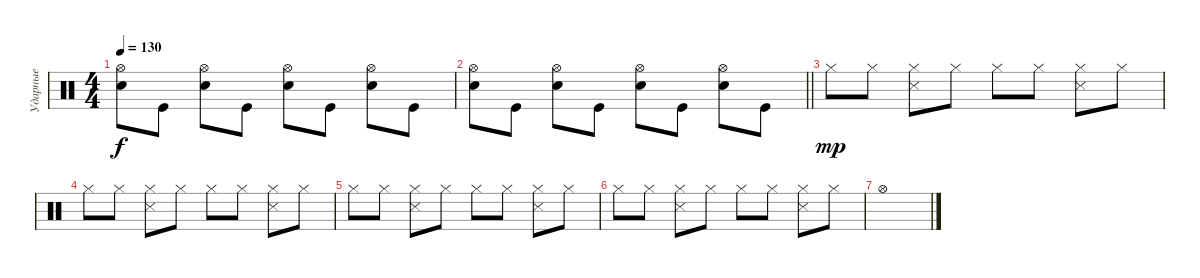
\track ("Ударные" "Ударные") {instrument percussion}
\staff {score}
\articulation defaults
\ts (4 4)
\tempo 130
\clef neutral
\ks c
("Hi-Hat (open)" "Electric Snare (hit)").8{dy f} "Kick (hit)".8 ("Hi-Hat (open)" "Electric Snare (hit)").8 "Kick (hit)".8 ("Hi-Hat (open)" "Electric Snare (hit)").8 "Kick (hit)".8 ("Hi-Hat (open)" "Electric Snare (hit)").8 "Kick (hit)".8 |
\barLineRight lightlight
("Hi-Hat (open)" "Electric Snare (hit)").8 "Kick (hit)".8 ("Hi-Hat (open)" "Electric Snare (hit)").8 "Kick (hit)".8 ("Hi-Hat (open)" "Electric Snare (hit)").8 "Kick (hit)".8 ("Hi-Hat (open)" "Electric Snare (hit)").8 "Kick (hit)".8 |
\section ("" " ")
"Hi-Hat (closed)".8{dy mp} "Hi-Hat (closed)".8 ("Hi-Hat (closed)" "Snare (side stick) 3").8 "Hi-Hat (closed)".8 "Hi-Hat (closed)".8 "Hi-Hat (closed)".8 ("Hi-Hat (closed)" "Snare (side stick) 3").8 "Hi-Hat (closed)".8 |
"Hi-Hat (closed)".8 "Hi-Hat (closed)".8 ("Hi-Hat (closed)" "Snare (side stick) 3").8 "Hi-Hat (closed)".8 "Hi-Hat (closed)".8 "Hi-Hat (closed)".8 ("Hi-Hat (closed)" "Snare (side stick) 3").8 "Hi-Hat (closed)".8 |
"Hi-Hat (closed)".8 "Hi-Hat (closed)".8 ("Hi-Hat (closed)" "Snare (side stick) 3").8 "Hi-Hat (closed)".8 "Hi-Hat (closed)".8 "Hi-Hat (closed)".8 ("Hi-Hat (closed)" "Snare (side stick) 3").8 "Hi-Hat (closed)".8 |
"Hi-Hat (closed)".8 "Hi-Hat (closed)".8 ("Hi-Hat (closed)" "Snare (side stick) 3").8 "Hi-Hat (closed)".8 "Hi-Hat (closed)".8 "Hi-Hat (closed)".8 ("Hi-Hat (closed)" "Snare (side stick) 3").8 "Hi-Hat (closed)".8 |
"Hi-Hat (open)".1
